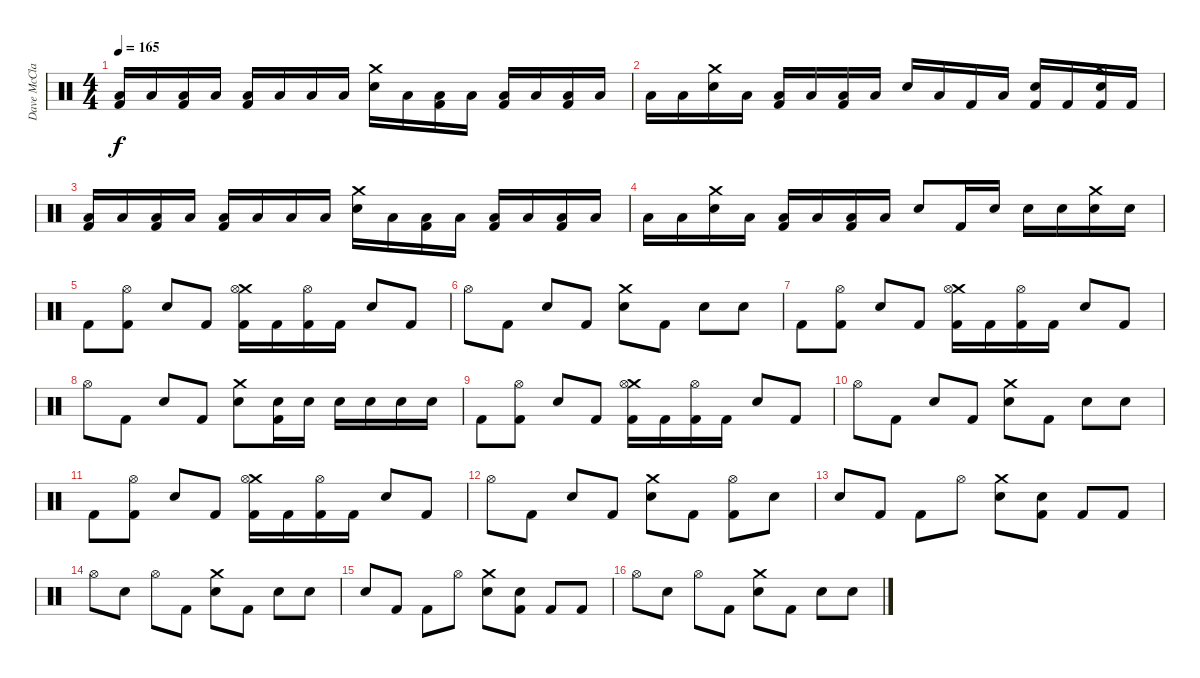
\track ("Dave McClain" "Dave McCla") {instrument percussion}
\staff {score}
\articulation defaults
\ts (4 4)
\tempo 165
\clef neutral
\ks c
("Low Tom (hit)" "Kick (hit) 2").16{dy f} "Low Tom (hit)".16 ("Low Tom (hit)" "Kick (hit) 2").16 "Low Tom (hit)".16 ("Low Tom (hit)" "Kick (hit) 2").16 "Low Tom (hit)".16 "Low Tom (hit)".16 "Low Tom (hit)".16 ("Crash medium (hit)" "Electric Snare (hit)").16 "Low Tom (hit)".16 ("Low Tom (hit)" "Kick (hit) 2").16 "Low Tom (hit)".16 ("Low Tom (hit)" "Kick (hit) 2").16 "Low Tom (hit)".16 ("Low Tom (hit)" "Kick (hit) 2").16 "Low Tom (hit)".16 |
"Low Tom (hit)".16 "Low Tom (hit)".16 ("Crash medium (hit)" "Electric Snare (hit)").16 "Low Tom (hit)".16 ("Low Tom (hit)" "Kick (hit) 2").16 "Low Tom (hit)".16 ("Low Tom (hit)" "Kick (hit) 2").16 "Low Tom (hit)".16 "Electric Snare (hit)".16 "Low Tom (hit)".16 "Kick (hit) 2".16 "Low Tom (hit)".16 ("Electric Snare (hit)" "Kick (hit) 2").16 "Kick (hit) 2".16 ("Crash medium (hit)" "Electric Snare (hit)" "Kick (hit) 2").16 "Kick (hit) 2".16 |
("Low Tom (hit)" "Kick (hit) 2").16 "Low Tom (hit)".16 ("Low Tom (hit)" "Kick (hit) 2").16 "Low Tom (hit)".16 ("Low Tom (hit)" "Kick (hit) 2").16 "Low Tom (hit)".16 "Low Tom (hit)".16 "Low Tom (hit)".16 ("Crash medium (hit)" "Electric Snare (hit)").16 "Low Tom (hit)".16 ("Low Tom (hit)" "Kick (hit) 2").16 "Low Tom (hit)".16 ("Low Tom (hit)" "Kick (hit) 2").16 "Low Tom (hit)".16 ("Low Tom (hit)" "Kick (hit) 2").16 "Low Tom (hit)".16 |
"Low Tom (hit)".16 "Low Tom (hit)".16 ("Crash medium (hit)" "Electric Snare (hit)").16 "Low Tom (hit)".16 ("Low Tom (hit)" "Kick (hit) 2").16 "Low Tom (hit)".16 ("Low Tom (hit)" "Kick (hit) 2").16 "Low Tom (hit)".16 "Electric Snare (hit)".8 "Kick (hit) 2".16 "Electric Snare (hit)".16 "Electric Snare (hit)".16 "Electric Snare (hit)".16 ("Crash medium (hit)" "Electric Snare (hit)").16 "Electric Snare (hit)".16 |
"Kick (hit) 2".8 ("Hi-Hat (open)" "Kick (hit) 2").8 "Electric Snare (hit)".8 "Kick (hit) 2".8 ("Crash medium (hit)" "Hi-Hat (open)" "Kick (hit) 2").16 "Kick (hit) 2".16 ("Hi-Hat (open)" "Kick (hit) 2").16 "Kick (hit) 2".16 "Electric Snare (hit)".8 "Kick (hit) 2".8 |
"Hi-Hat (open)".8 "Kick (hit) 2".8 "Electric Snare (hit)".8 "Kick (hit) 2".8 ("Crash medium (hit)" "Electric Snare (hit)").8 "Kick (hit) 2".8 "Electric Snare (hit)".8 "Electric Snare (hit)".8 |
"Kick (hit) 2".8 ("Hi-Hat (open)" "Kick (hit) 2").8 "Electric Snare (hit)".8 "Kick (hit) 2".8 ("Crash medium (hit)" "Hi-Hat (open)" "Kick (hit) 2").16 "Kick (hit) 2".16 ("Hi-Hat (open)" "Kick (hit) 2").16 "Kick (hit) 2".16 "Electric Snare (hit)".8 "Kick (hit) 2".8 |
"Hi-Hat (open)".8 "Kick (hit) 2".8 "Electric Snare (hit)".8 "Kick (hit) 2".8 ("Crash medium (hit)" "Electric Snare (hit)").8 ("Electric Snare (hit)" "Kick (hit) 2").16 "Electric Snare (hit)".16 "Electric Snare (hit)".16 "Electric Snare (hit)".16 "Electric Snare (hit)".16 "Electric Snare (hit)".16 |
"Kick (hit) 2".8 ("Hi-Hat (open)" "Kick (hit) 2").8 "Electric Snare (hit)".8 "Kick (hit) 2".8 ("Crash medium (hit)" "Hi-Hat (open)" "Kick (hit) 2").16 "Kick (hit) 2".16 ("Hi-Hat (open)" "Kick (hit) 2").16 "Kick (hit) 2".16 "Electric Snare (hit)".8 "Kick (hit) 2".8 |
"Hi-Hat (open)".8 "Kick (hit) 2".8 "Electric Snare (hit)".8 "Kick (hit) 2".8 ("Crash medium (hit)" "Electric Snare (hit)").8 "Kick (hit) 2".8 "Electric Snare (hit)".8 "Electric Snare (hit)".8 |
"Kick (hit) 2".8 ("Hi-Hat (open)" "Kick (hit) 2").8 "Electric Snare (hit)".8 "Kick (hit) 2".8 ("Crash medium (hit)" "Hi-Hat (open)" "Kick (hit) 2").16 "Kick (hit) 2".16 ("Hi-Hat (open)" "Kick (hit) 2").16 "Kick (hit) 2".16 "Electric Snare (hit)".8 "Kick (hit) 2".8 |
"Hi-Hat (open)".8 "Kick (hit) 2".8 "Electric Snare (hit)".8 "Kick (hit) 2".8 ("Crash medium (hit)" "Electric Snare (hit)").8 "Kick (hit) 2".8 ("Hi-Hat (open)" "Kick (hit) 2").8 "Electric Snare (hit)".8 |
"Electric Snare (hit)".8 "Kick (hit) 2".8 "Kick (hit) 2".8 "Hi-Hat (open)".8 ("Crash medium (hit)" "Electric Snare (hit)").8 ("Snare (hit) 2" "Kick (hit) 2").8 "Kick (hit) 2".8 "Kick (hit) 2".8 |
"Hi-Hat (open)".8 "Electric Snare (hit)".8 "Hi-Hat (open)".8 "Kick (hit) 2".8 ("Crash medium (hit)" "Electric Snare (hit)").8 "Kick (hit) 2".8 "Electric Snare (hit)".8 "Electric Snare (hit)".8 |
"Electric Snare (hit)".8 "Kick (hit) 2".8 "Kick (hit) 2".8 "Hi-Hat (open)".8 ("Crash medium (hit)" "Electric Snare (hit)").8 ("Snare (hit) 2" "Kick (hit) 2").8 "Kick (hit) 2".8 "Kick (hit) 2".8 |
"Hi-Hat (open)".8 "Electric Snare (hit)".8 "Hi-Hat (open)".8 "Kick (hit) 2".8 ("Crash medium (hit)" "Electric Snare (hit)").8 "Kick (hit) 2".8 "Electric Snare (hit)".8 "Electric Snare (hit)".8
